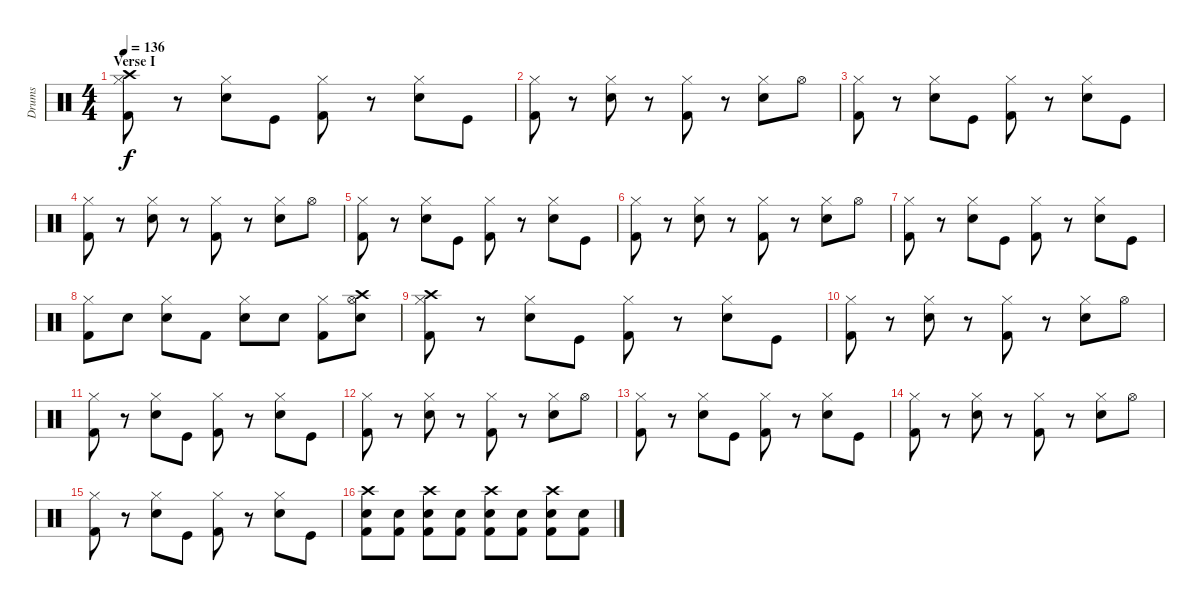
\track ("Drums" "Drums") {instrument percussion}
\staff {score}
\articulation defaults
\ts (4 4)
\section ("" "Verse I")
\tempo 136
\clef neutral
\ks c
("Hi-Hat (closed)" "Crash high (hit)" "Kick (hit) 2").8{dy f} r.8 ("Hi-Hat (closed)" "Snare (hit) 2").8 "Kick (hit)".8 ("Hi-Hat (closed)" "Kick (hit) 2").8 r.8 ("Hi-Hat (closed)" "Snare (hit) 2").8 "Kick (hit)".8 |
("Hi-Hat (closed)" "Kick (hit) 2").8 r.8 ("Hi-Hat (closed)" "Snare (hit) 2").8 r.8 ("Hi-Hat (closed)" "Kick (hit) 2").8 r.8 ("Hi-Hat (closed)" "Snare (hit) 2").8 "Hi-Hat (open)".8 |
("Hi-Hat (closed)" "Kick (hit) 2").8 r.8 ("Hi-Hat (closed)" "Snare (hit) 2").8 "Kick (hit)".8 ("Hi-Hat (closed)" "Kick (hit) 2").8 r.8 ("Hi-Hat (closed)" "Snare (hit) 2").8 "Kick (hit)".8 |
("Hi-Hat (closed)" "Kick (hit) 2").8 r.8 ("Hi-Hat (closed)" "Snare (hit) 2").8 r.8 ("Hi-Hat (closed)" "Kick (hit) 2").8 r.8 ("Hi-Hat (closed)" "Snare (hit) 2").8 "Hi-Hat (open)".8 |
("Hi-Hat (closed)" "Kick (hit) 2").8 r.8 ("Hi-Hat (closed)" "Snare (hit) 2").8 "Kick (hit)".8 ("Hi-Hat (closed)" "Kick (hit) 2").8 r.8 ("Hi-Hat (closed)" "Snare (hit) 2").8 "Kick (hit)".8 |
("Hi-Hat (closed)" "Kick (hit) 2").8 r.8 ("Hi-Hat (closed)" "Snare (hit) 2").8 r.8 ("Hi-Hat (closed)" "Kick (hit) 2").8 r.8 ("Hi-Hat (closed)" "Snare (hit) 2").8 "Hi-Hat (open)".8 |
("Hi-Hat (closed)" "Kick (hit) 2").8 r.8 ("Hi-Hat (closed)" "Snare (hit) 2").8 "Kick (hit)".8 ("Hi-Hat (closed)" "Kick (hit) 2").8 r.8 ("Hi-Hat (closed)" "Snare (hit) 2").8 "Kick (hit)".8 |
("Hi-Hat (closed)" "Kick (hit) 2").8 "Snare (hit) 2".8 ("Hi-Hat (closed)" "Snare (hit) 2").8 "Kick (hit) 2".8 ("Hi-Hat (closed)" "Snare (hit) 2").8 "Snare (hit) 2".8 ("Hi-Hat (closed)" "Kick (hit) 2").8 ("Hi-Hat (open)" "Crash high (hit)" "Snare (hit) 2").8 |
("Hi-Hat (closed)" "Crash high (hit)" "Kick (hit) 2").8 r.8 ("Hi-Hat (closed)" "Snare (hit) 2").8 "Kick (hit)".8 ("Hi-Hat (closed)" "Kick (hit) 2").8 r.8 ("Hi-Hat (closed)" "Snare (hit) 2").8 "Kick (hit)".8 |
("Hi-Hat (closed)" "Kick (hit) 2").8 r.8 ("Hi-Hat (closed)" "Snare (hit) 2").8 r.8 ("Hi-Hat (closed)" "Kick (hit) 2").8 r.8 ("Hi-Hat (closed)" "Snare (hit) 2").8 "Hi-Hat (open)".8 |
("Hi-Hat (closed)" "Kick (hit) 2").8 r.8 ("Hi-Hat (closed)" "Snare (hit) 2").8 "Kick (hit)".8 ("Hi-Hat (closed)" "Kick (hit) 2").8 r.8 ("Hi-Hat (closed)" "Snare (hit) 2").8 "Kick (hit)".8 |
("Hi-Hat (closed)" "Kick (hit) 2").8 r.8 ("Hi-Hat (closed)" "Snare (hit) 2").8 r.8 ("Hi-Hat (closed)" "Kick (hit) 2").8 r.8 ("Hi-Hat (closed)" "Snare (hit) 2").8 "Hi-Hat (open)".8 |
("Hi-Hat (closed)" "Kick (hit) 2").8 r.8 ("Hi-Hat (closed)" "Snare (hit) 2").8 "Kick (hit)".8 ("Hi-Hat (closed)" "Kick (hit) 2").8 r.8 ("Hi-Hat (closed)" "Snare (hit) 2").8 "Kick (hit)".8 |
("Hi-Hat (closed)" "Kick (hit) 2").8 r.8 ("Hi-Hat (closed)" "Snare (hit) 2").8 r.8 ("Hi-Hat (closed)" "Kick (hit) 2").8 r.8 ("Hi-Hat (closed)" "Snare (hit) 2").8 "Hi-Hat (open)".8 |
("Hi-Hat (closed)" "Kick (hit) 2").8 r.8 ("Hi-Hat (closed)" "Snare (hit) 2").8 "Kick (hit)".8 ("Hi-Hat (closed)" "Kick (hit) 2").8 r.8 ("Hi-Hat (closed)" "Snare (hit) 2").8 "Kick (hit)".8 |
("Crash high (hit)" "Snare (hit) 2" "Kick (hit) 2").8 ("Snare (hit) 2" "Kick (hit) 2").8 ("Crash high (hit)" "Snare (hit) 2" "Kick (hit) 2").8 ("Snare (hit) 2" "Kick (hit) 2").8 ("Crash high (hit)" "Snare (hit) 2" "Kick (hit) 2").8 ("Snare (hit) 2" "Kick (hit) 2").8 ("Crash high (hit)" "Snare (hit) 2" "Kick (hit) 2").8 ("Snare (hit) 2" "Kick (hit) 2").8
